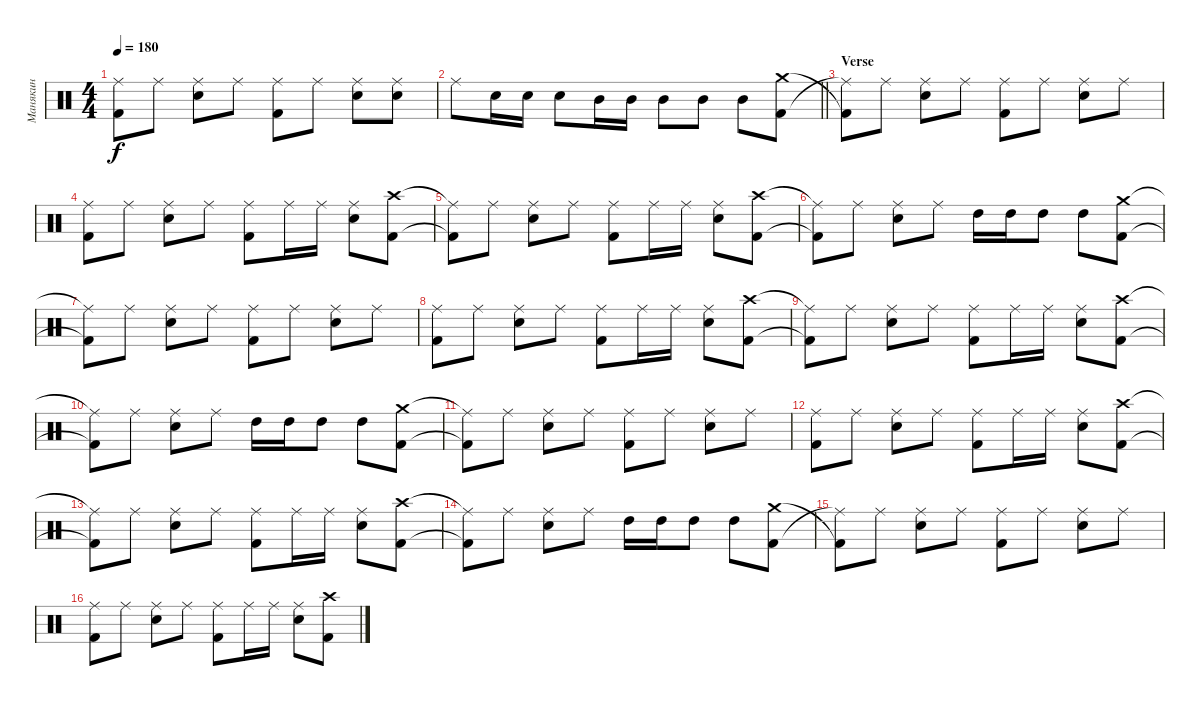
\track ("Манякин" "Манякин") {instrument percussion}
\staff {score}
\articulation defaults
\ts (4 4)
\tempo 180
\clef neutral
\ks c
("Kick (hit) 2" "Ride (middle)").8{dy f} "Ride (middle)".8 ("Snare (hit) 2" "Ride (middle)").8 "Ride (middle)".8 ("Kick (hit) 2" "Ride (middle)").8 "Ride (middle)".8 ("Snare (hit) 2" "Ride (middle)").8 ("Snare (hit) 2" "Ride (middle)").8 |
\barLineRight lightlight "Ride (middle)".8 "Snare (hit) 2".16 "Snare (hit) 2".16 "Snare (hit) 2".8 "Mid Tom (hit)".16 "Mid Tom (hit)".16 "Mid Tom (hit)".8 "Mid Tom (hit)".8 "Mid Tom (hit)".8
("Kick (hit) 2" "Crash medium (hit)").8 |
\section ("" "Verse")
("Ride (middle)"{t} "Kick (hit) 2"{t}).8 "Ride (middle)".8 ("Ride (middle)" "Snare (hit) 2").8 "Ride (middle)".8 ("Ride (middle)" "Kick (hit) 2").8 "Ride (middle)".8 ("Ride (middle)" "Snare (hit) 2").8 "Ride (middle)".8 |
("Kick (hit) 2" "Ride (middle)").8 "Ride (middle)".8 ("Snare (hit) 2" "Ride (middle)").8 "Ride (middle)".8 ("Kick (hit) 2" "Ride (middle)").8 "Ride (middle)".16 "Ride (middle)".16 ("Snare (hit) 2" "Ride (middle)").8 ("Kick (hit) 2" "Crash high (hit)").8 |
("Kick (hit) 2"{t} "Ride (middle)"{t}).8 "Ride (middle)".8 ("Snare (hit) 2" "Ride (middle)").8 "Ride (middle)".8 ("Kick (hit) 2" "Ride (middle)").8 "Ride (middle)".16 "Ride (middle)".16 ("Snare (hit) 2" "Ride (middle)").8 ("Kick (hit) 2" "Crash high (hit)").8 |
("Kick (hit) 2"{t} "Ride (middle)"{t}).8 "Ride (middle)".8 ("Snare (hit) 2" "Ride (middle)").8 "Ride (middle)".8 "High Tom (hit)".16 "High Tom (hit)".16 "High Tom (hit)".8 "High Tom (hit)".8 ("Crash medium (hit)" "Kick (hit) 2").8 |
("Ride (middle)"{t} "Kick (hit) 2"{t}).8 "Ride (middle)".8 ("Ride (middle)" "Snare (hit) 2").8 "Ride (middle)".8 ("Ride (middle)" "Kick (hit) 2").8 "Ride (middle)".8 ("Ride (middle)" "Snare (hit) 2").8 "Ride (middle)".8 |
("Kick (hit) 2" "Ride (middle)").8 "Ride (middle)".8 ("Snare (hit) 2" "Ride (middle)").8 "Ride (middle)".8 ("Kick (hit) 2" "Ride (middle)").8 "Ride (middle)".16 "Ride (middle)".16 ("Snare (hit) 2" "Ride (middle)").8 ("Kick (hit) 2" "Crash high (hit)").8 |
("Kick (hit) 2"{t} "Ride (middle)"{t}).8 "Ride (middle)".8 ("Snare (hit) 2" "Ride (middle)").8 "Ride (middle)".8 ("Kick (hit) 2" "Ride (middle)").8 "Ride (middle)".16 "Ride (middle)".16 ("Snare (hit) 2" "Ride (middle)").8 ("Kick (hit) 2" "Crash high (hit)").8 |
("Kick (hit) 2"{t} "Ride (middle)"{t}).8 "Ride (middle)".8 ("Snare (hit) 2" "Ride (middle)").8 "Ride (middle)".8 "High Tom (hit)".16 "High Tom (hit)".16 "High Tom (hit)".8 "High Tom (hit)".8 ("Crash medium (hit)" "Kick (hit) 2").8 |
("Ride (middle)"{t} "Kick (hit) 2"{t}).8 "Ride (middle)".8 ("Ride (middle)" "Snare (hit) 2").8 "Ride (middle)".8 ("Ride (middle)" "Kick (hit) 2").8 "Ride (middle)".8 ("Ride (middle)" "Snare (hit) 2").8 "Ride (middle)".8 |
("Kick (hit) 2" "Ride (middle)").8 "Ride (middle)".8 ("Snare (hit) 2" "Ride (middle)").8 "Ride (middle)".8 ("Kick (hit) 2" "Ride (middle)").8 "Ride (middle)".16 "Ride (middle)".16 ("Snare (hit) 2" "Ride (middle)").8 ("Kick (hit) 2" "Crash high (hit)").8 |
("Kick (hit) 2"{t} "Ride (middle)"{t}).8 "Ride (middle)".8 ("Snare (hit) 2" "Ride (middle)").8 "Ride (middle)".8 ("Kick (hit) 2" "Ride (middle)").8 "Ride (middle)".16 "Ride (middle)".16 ("Snare (hit) 2" "Ride (middle)").8 ("Kick (hit) 2" "Crash high (hit)").8 |
("Kick (hit) 2"{t} "Ride (middle)"{t}).8 "Ride (middle)".8 ("Snare (hit) 2" "Ride (middle)").8 "Ride (middle)".8 "High Tom (hit)".16 "High Tom (hit)".16 "High Tom (hit)".8 "High Tom (hit)".8 ("Crash medium (hit)" "Kick (hit) 2").8 |
("Kick (hit) 2"{t} "Ride (middle)"{t}).8 "Ride (middle)".8 ("Snare (hit) 2" "Ride (middle)").8 "Ride (middle)".8 ("Kick (hit) 2" "Ride (middle)").8 "Ride (middle)".8 ("Snare (hit) 2" "Ride (middle)").8 "Ride (middle)".8 |
("Kick (hit) 2" "Ride (middle)").8 "Ride (middle)".8 ("Snare (hit) 2" "Ride (middle)").8 "Ride (middle)".8 ("Kick (hit) 2" "Ride (middle)").8 "Ride (middle)".16 "Ride (middle)".16 ("Snare (hit) 2" "Ride (middle)").8 ("Kick (hit) 2" "Crash high (hit)").8
